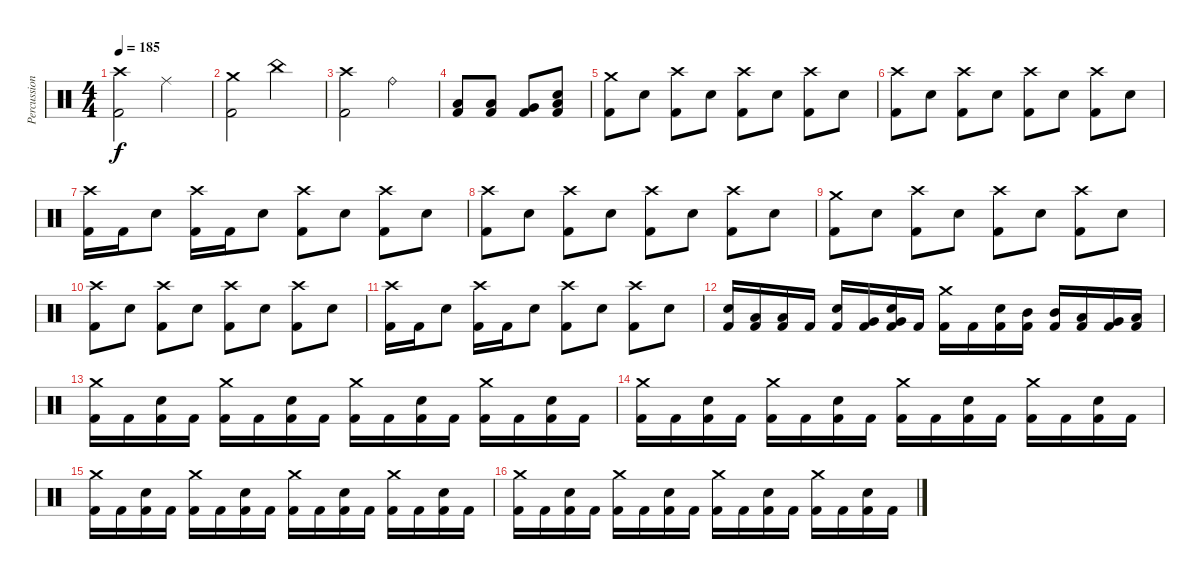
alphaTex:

\track ("Percussion" "Percussion") {instrument percussion}
\staff {score}
\articulation defaults
\ts (4 4)
\tempo 185
\clef neutral
\ks c
("Crash high (hit)" "Kick (hit) 2").2{dy f} "Ride (middle)".2 |
("Crash medium (hit)" "Kick (hit) 2").2 "China (hit)".2 |
("Crash high (hit)" "Kick (hit) 2").2 "Ride (bell)".2 |
("Low Tom (hit)" "Kick (hit) 2").8 ("Low Tom (hit)" "Kick (hit) 2").8 ("Very Low Tom (hit)" "Kick (hit) 2").8 ("Low Floor Tom (hit)" "Snare (hit) 2" "Kick (hit) 2").8 |
("Crash medium (hit)" "Kick (hit) 2").8 "Snare (hit) 2".8 ("Crash high (hit)" "Kick (hit) 2").8 "Snare (hit) 2".8 ("Crash high (hit)" "Kick (hit) 2").8 "Snare (hit) 2".8 ("Crash high (hit)" "Kick (hit) 2").8 "Snare (hit) 2".8 |
("Crash high (hit)" "Kick (hit) 2").8 "Snare (hit) 2".8 ("Crash high (hit)" "Kick (hit) 2").8 "Snare (hit) 2".8 ("Crash high (hit)" "Kick (hit) 2").8 "Snare (hit) 2".8 ("Crash high (hit)" "Kick (hit) 2").8 "Snare (hit) 2".8 |
("Crash high (hit)" "Kick (hit) 2").16 "Kick (hit) 2".16 "Snare (hit) 2".8 ("Crash high (hit)" "Kick (hit) 2").16 "Kick (hit) 2".16 "Snare (hit) 2".8 ("Crash high (hit)" "Kick (hit) 2").8 "Snare (hit) 2".8 ("Crash high (hit)" "Kick (hit) 2").8 "Snare (hit) 2".8 |
("Crash high (hit)" "Kick (hit) 2").8 "Snare (hit) 2".8 ("Crash high (hit)" "Kick (hit) 2").8 "Snare (hit) 2".8 ("Crash high (hit)" "Kick (hit) 2").8 "Snare (hit) 2".8 ("Crash high (hit)" "Kick (hit) 2").8 "Snare (hit) 2".8 |
("Crash medium (hit)" "Kick (hit) 2").8 "Snare (hit) 2".8 ("Crash high (hit)" "Kick (hit) 2").8 "Snare (hit) 2".8 ("Crash high (hit)" "Kick (hit) 2").8 "Snare (hit) 2".8 ("Crash high (hit)" "Kick (hit) 2").8 "Snare (hit) 2".8 |
("Crash high (hit)" "Kick (hit) 2").8 "Snare (hit) 2".8 ("Crash high (hit)" "Kick (hit) 2").8 "Snare (hit) 2".8 ("Crash high (hit)" "Kick (hit) 2").8 "Snare (hit) 2".8 ("Crash high (hit)" "Kick (hit) 2").8 "Snare (hit) 2".8 |
("Crash high (hit)" "Kick (hit) 2").16 "Kick (hit) 2".16 "Snare (hit) 2".8 ("Crash high (hit)" "Kick (hit) 2").16 "Kick (hit) 2".16 "Snare (hit) 2".8 ("Crash high (hit)" "Kick (hit) 2").8 "Snare (hit) 2".8 ("Crash high (hit)" "Kick (hit) 2").8 "Snare (hit) 2".8 |
("Snare (hit) 2" "Kick (hit) 2").16 ("Low Tom (hit)" "Kick (hit) 2").16 ("Low Tom (hit)" "Kick (hit) 2").16 "Kick (hit) 2".16 ("Snare (hit) 2" "Kick (hit) 2").16 ("Very Low Tom (hit)" "Kick (hit) 2").16 ("Snare (hit) 2" "Very Low Tom (hit)" "Kick (hit) 2").16 "Kick (hit) 2".16 ("Crash medium (hit)" "Kick (hit) 2").16 "Kick (hit) 2".16 ("Snare (hit) 2" "Kick (hit) 2").16 ("Mid Tom (hit)" "Kick (hit) 2").16 ("Mid Tom (hit)" "Kick (hit) 2").16 ("Low Tom (hit)" "Kick (hit) 2").16 ("Very Low Tom (hit)" "Kick (hit) 2").16 ("Low Floor Tom (hit)" "Kick (hit) 2").16 |
("Crash medium (hit)" "Kick (hit) 2").16 "Kick (hit) 2".16 ("Snare (hit) 2" "Kick (hit) 2").16 "Kick (hit) 2".16 ("Crash medium (hit)" "Kick (hit) 2").16 "Kick (hit) 2".16 ("Snare (hit) 2" "Kick (hit) 2").16 "Kick (hit) 2".16 ("Crash medium (hit)" "Kick (hit) 2").16 "Kick (hit) 2".16 ("Snare (hit) 2" "Kick (hit) 2").16 "Kick (hit) 2".16 ("Crash medium (hit)" "Kick (hit) 2").16 "Kick (hit) 2".16 ("Snare (hit) 2" "Kick (hit) 2").16 "Kick (hit) 2".16 |
("Crash medium (hit)" "Kick (hit) 2").16 "Kick (hit) 2".16 ("Snare (hit) 2" "Kick (hit) 2").16 "Kick (hit) 2".16 ("Crash medium (hit)" "Kick (hit) 2").16 "Kick (hit) 2".16 ("Snare (hit) 2" "Kick (hit) 2").16 "Kick (hit) 2".16 ("Crash medium (hit)" "Kick (hit) 2").16 "Kick (hit) 2".16 ("Snare (hit) 2" "Kick (hit) 2").16 "Kick (hit) 2".16 ("Crash medium (hit)" "Kick (hit) 2").16 "Kick (hit) 2".16 ("Snare (hit) 2" "Kick (hit) 2").16 "Kick (hit) 2".16 |
("Crash medium (hit)" "Kick (hit) 2").16 "Kick (hit) 2".16 ("Snare (hit) 2" "Kick (hit) 2").16 "Kick (hit) 2".16 ("Crash medium (hit)" "Kick (hit) 2").16 "Kick (hit) 2".16 ("Snare (hit) 2" "Kick (hit) 2").16 "Kick (hit) 2".16 ("Crash medium (hit)" "Kick (hit) 2").16 "Kick (hit) 2".16 ("Snare (hit) 2" "Kick (hit) 2").16 "Kick (hit) 2".16 ("Crash medium (hit)" "Kick (hit) 2").16 "Kick (hit) 2".16 ("Snare (hit) 2" "Kick (hit) 2").16 "Kick (hit) 2".16 |
("Crash medium (hit)" "Kick (hit) 2").16 "Kick (hit) 2".16 ("Snare (hit) 2" "Kick (hit) 2").16 "Kick (hit) 2".16 ("Crash medium (hit)" "Kick (hit) 2").16 "Kick (hit) 2".16 ("Snare (hit) 2" "Kick (hit) 2").16 "Kick (hit) 2".16 ("Crash medium (hit)" "Kick (hit) 2").16 "Kick (hit) 2".16 ("Snare (hit) 2" "Kick (hit) 2").16 "Kick (hit) 2".16 ("Crash medium (hit)" "Kick (hit) 2").16 "Kick (hit) 2".16 ("Snare (hit) 2" "Kick (hit) 2").16 "Kick (hit) 2".16
